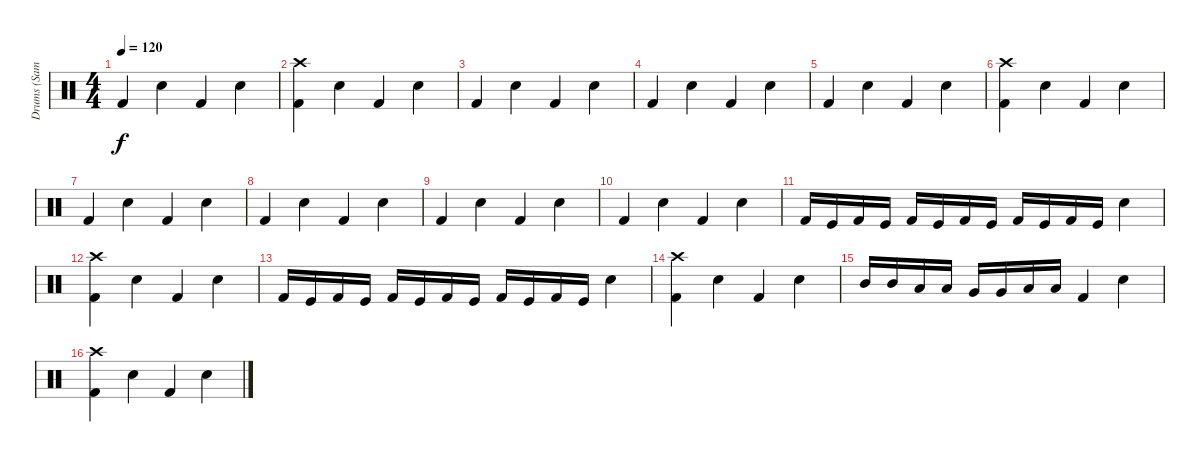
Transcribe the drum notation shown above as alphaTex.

\track ("Drums (Sami Karppinen)" "Drums (Sam") {instrument percussion}
\staff {score}
\articulation defaults
\ts (4 4)
\tempo 120
\clef neutral
\ks c "Kick (hit) 2".4{dy f} "Electric Snare (hit)".4 "Kick (hit) 2".4 "Electric Snare (hit)".4
|
("Crash high (hit)" "Kick (hit) 2").4 "Electric Snare (hit)".4 "Kick (hit) 2".4 "Electric Snare (hit)".4 |
"Kick (hit) 2".4 "Electric Snare (hit)".4 "Kick (hit) 2".4 "Electric Snare (hit)".4 |
"Kick (hit) 2".4 "Electric Snare (hit)".4 "Kick (hit) 2".4 "Electric Snare (hit)".4 |
"Kick (hit) 2".4 "Electric Snare (hit)".4 "Kick (hit) 2".4 "Electric Snare (hit)".4 |
("Crash high (hit)" "Kick (hit) 2").4 "Electric Snare (hit)".4 "Kick (hit) 2".4 "Electric Snare (hit)".4 |
"Kick (hit) 2".4 "Electric Snare (hit)".4 "Kick (hit) 2".4 "Electric Snare (hit)".4 |
"Kick (hit) 2".4 "Electric Snare (hit)".4 "Kick (hit) 2".4 "Electric Snare (hit)".4 |
"Kick (hit) 2".4 "Electric Snare (hit)".4 "Kick (hit) 2".4 "Electric Snare (hit)".4 |
"Kick (hit) 2".4 "Electric Snare (hit)".4 "Kick (hit) 2".4 "Electric Snare (hit)".4 |
"Kick (hit) 2".16 "Kick (hit)".16 "Kick (hit) 2".16 "Kick (hit)".16 "Kick (hit) 2".16 "Kick (hit)".16 "Kick (hit) 2".16 "Kick (hit)".16 "Kick (hit) 2".16 "Kick (hit)".16 "Kick (hit) 2".16 "Kick (hit)".16 "Electric Snare (hit)".4 |
("Crash high (hit)" "Kick (hit) 2").4 "Electric Snare (hit)".4 "Kick (hit) 2".4 "Electric Snare (hit)".4 |
"Kick (hit) 2".16 "Kick (hit)".16 "Kick (hit) 2".16 "Kick (hit)".16 "Kick (hit) 2".16 "Kick (hit)".16 "Kick (hit) 2".16 "Kick (hit)".16 "Kick (hit) 2".16 "Kick (hit)".16 "Kick (hit) 2".16 "Kick (hit)".16 "Electric Snare (hit)".4 |
("Crash high (hit)" "Kick (hit) 2").4 "Electric Snare (hit)".4 "Kick (hit) 2".4 "Electric Snare (hit)".4 |
"Mid Tom (hit)".16 "Mid Tom (hit)".16 "Low Tom (hit)".16 "Low Tom (hit)".16 "Very Low Tom (hit)".16 "Very Low Tom (hit)".16 "Low Floor Tom (hit)".16 "Low Floor Tom (hit)".16 "Kick (hit) 2".4 "Electric Snare (hit)".4 |
("Crash high (hit)" "Kick (hit) 2").4 "Electric Snare (hit)".4 "Kick (hit) 2".4 "Electric Snare (hit)".4
